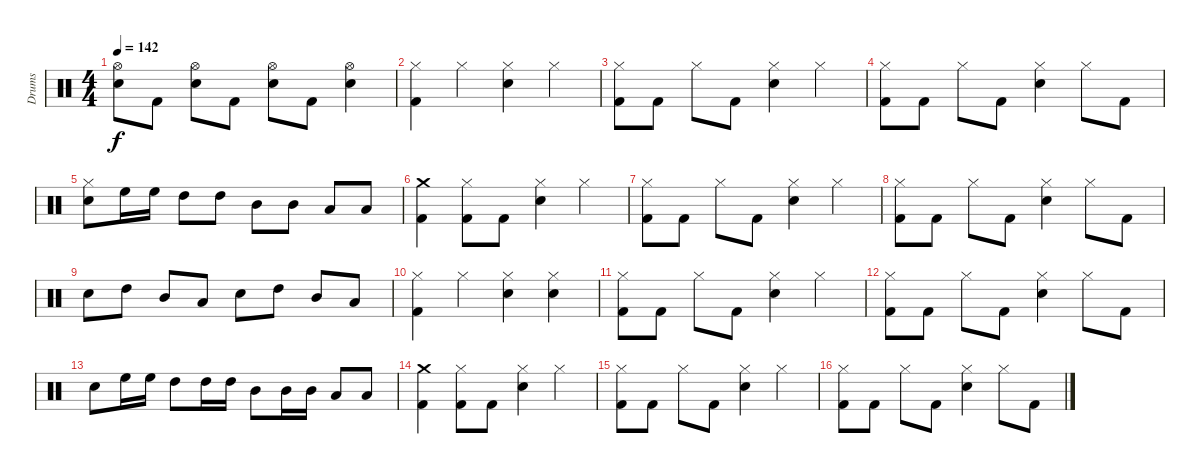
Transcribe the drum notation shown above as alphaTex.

\track ("Drums" "Drums") {instrument percussion}
\staff {score}
\articulation defaults
\ts (4 4)
\tempo 142
\clef neutral
\ks c
("Hi-Hat (open)" "Snare (hit) 2").8{dy f} "Kick (hit) 2".8 ("Hi-Hat (open)" "Snare (hit) 2").8 "Kick (hit) 2".8 ("Hi-Hat (open)" "Snare (hit) 2").8 "Kick (hit) 2".8 ("Hi-Hat (open)" "Snare (hit) 2").4 |
("Hi-Hat (closed)" "Kick (hit) 2").4 "Hi-Hat (closed)".4 ("Hi-Hat (closed)" "Snare (hit) 2").4 "Hi-Hat (closed)".4 |
("Hi-Hat (closed)" "Kick (hit) 2").8 "Kick (hit) 2".8 "Hi-Hat (closed)".8 "Kick (hit) 2".8 ("Hi-Hat (closed)" "Snare (hit) 2").4 "Hi-Hat (closed)".4 |
("Hi-Hat (closed)" "Kick (hit) 2").8 "Kick (hit) 2".8 "Hi-Hat (closed)".8 "Kick (hit) 2".8 ("Hi-Hat (closed)" "Snare (hit) 2").4 "Hi-Hat (closed)".8 "Kick (hit) 2".8 |
("Hi-Hat (closed)" "Snare (hit) 2").8 "High Floor Tom (hit)".16 "High Floor Tom (hit)".16 "High Tom (hit)".8 "High Tom (hit)".8 "Mid Tom (hit)".8 "Mid Tom (hit)".8 "Low Tom (hit)".8 "Low Tom (hit)".8 |
("Crash medium (hit)" "Kick (hit) 2").4 ("Hi-Hat (closed)" "Kick (hit) 2").8 "Kick (hit) 2".8 ("Hi-Hat (closed)" "Snare (hit) 2").4 "Hi-Hat (closed)".4 |
("Hi-Hat (closed)" "Kick (hit) 2").8 "Kick (hit) 2".8 "Hi-Hat (closed)".8 "Kick (hit) 2".8 ("Hi-Hat (closed)" "Snare (hit) 2").4 "Hi-Hat (closed)".4 |
("Hi-Hat (closed)" "Kick (hit) 2").8 "Kick (hit) 2".8 "Hi-Hat (closed)".8 "Kick (hit) 2".8 ("Hi-Hat (closed)" "Snare (hit) 2").4 "Hi-Hat (closed)".8 "Kick (hit) 2".8 |
"Snare (hit) 2".8 "High Tom (hit)".8 "Mid Tom (hit)".8 "Low Tom (hit)".8 "Snare (hit) 2".8 "High Tom (hit)".8 "Mid Tom (hit)".8 "Low Tom (hit)".8 |
("Hi-Hat (closed)" "Kick (hit) 2").4 "Hi-Hat (closed)".4 ("Hi-Hat (closed)" "Snare (hit) 2").4 ("Hi-Hat (closed)" "Snare (hit) 2").4 |
("Hi-Hat (closed)" "Kick (hit) 2").8 "Kick (hit) 2".8 "Hi-Hat (closed)".8 "Kick (hit) 2".8 ("Hi-Hat (closed)" "Snare (hit) 2").4 "Hi-Hat (closed)".4 |
("Hi-Hat (closed)" "Kick (hit) 2").8 "Kick (hit) 2".8 "Hi-Hat (closed)".8 "Kick (hit) 2".8 ("Hi-Hat (closed)" "Snare (hit) 2").4 "Hi-Hat (closed)".8 "Kick (hit) 2".8 |
"Snare (hit) 2".8 "High Floor Tom (hit)".16 "High Floor Tom (hit)".16 "High Tom (hit)".8 "High Tom (hit)".16 "High Tom (hit)".16 "Mid Tom (hit)".8 "Mid Tom (hit)".16 "Mid Tom (hit)".16 "Low Tom (hit)".8 "Low Tom (hit)".8 |
("Crash medium (hit)" "Kick (hit) 2").4 ("Hi-Hat (closed)" "Kick (hit) 2").8 "Kick (hit) 2".8 ("Hi-Hat (closed)" "Snare (hit) 2").4 "Hi-Hat (closed)".4 |
("Hi-Hat (closed)" "Kick (hit) 2").8 "Kick (hit) 2".8 "Hi-Hat (closed)".8 "Kick (hit) 2".8 ("Hi-Hat (closed)" "Snare (hit) 2").4 "Hi-Hat (closed)".4 |
("Hi-Hat (closed)" "Kick (hit) 2").8 "Kick (hit) 2".8 "Hi-Hat (closed)".8 "Kick (hit) 2".8 ("Hi-Hat (closed)" "Snare (hit) 2").4 "Hi-Hat (closed)".8 "Kick (hit) 2".8
